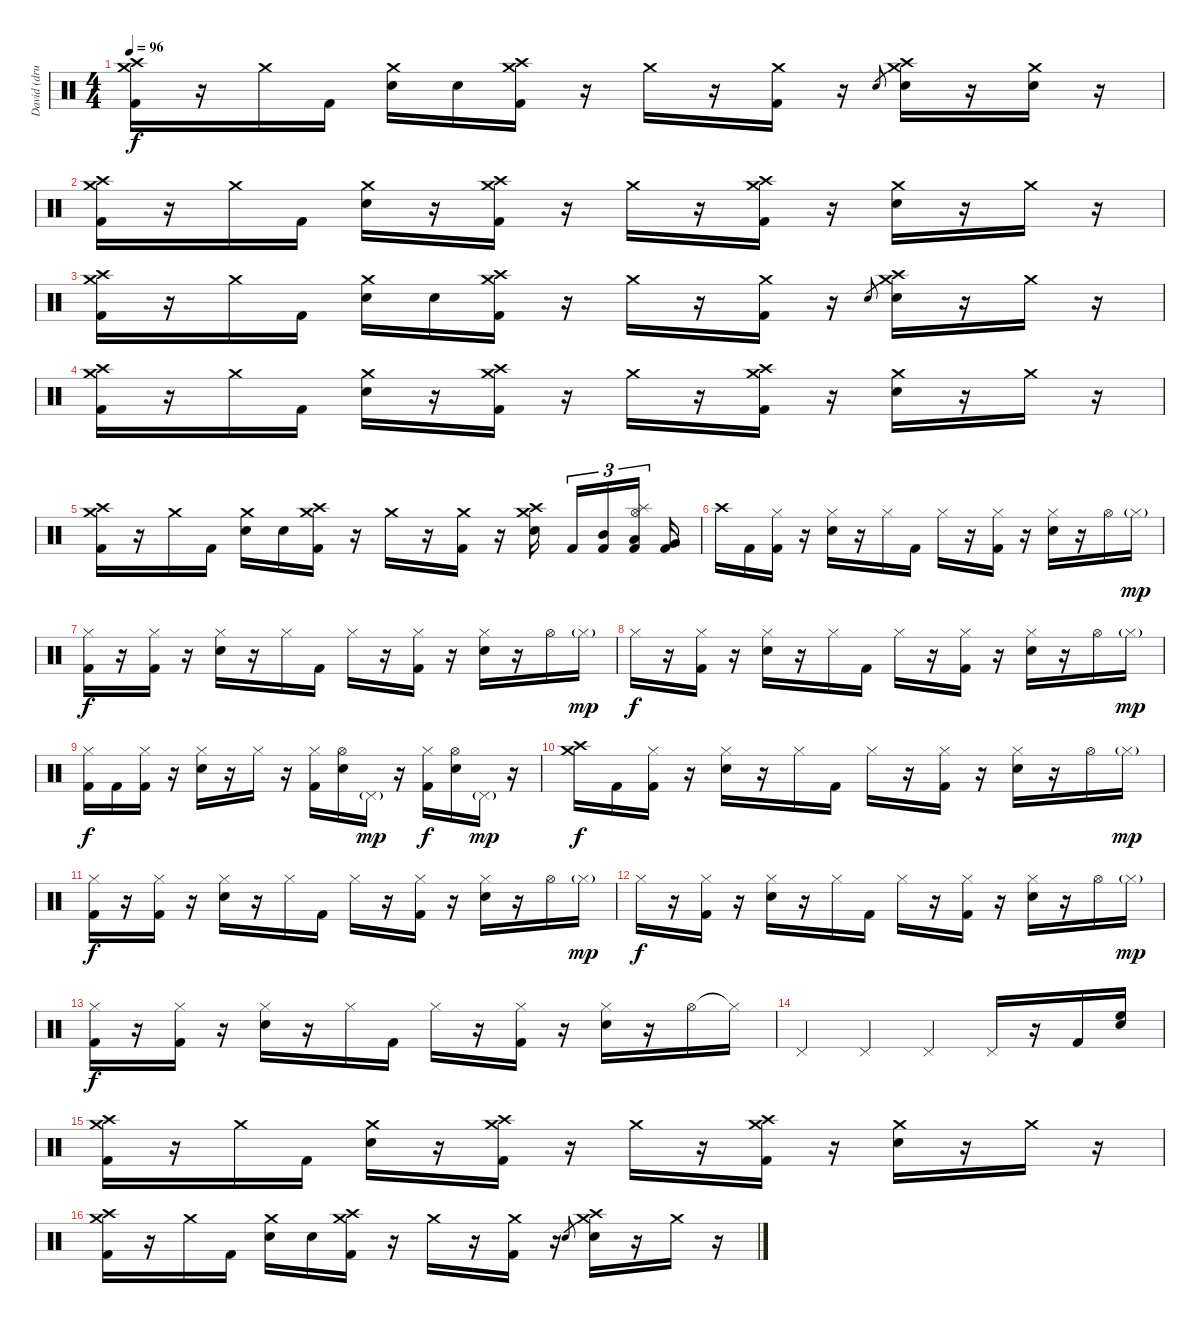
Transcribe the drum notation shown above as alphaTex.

\track ("David (drums)" "David (dru") {instrument percussion}
\staff {score}
\articulation defaults
\ts (4 4)
\tempo 96
\clef neutral
\ks c
("Crash high (hit)" "Crash medium (hit)" "Kick (hit) 2").16{dy f} r.16 "Crash medium (hit)".16 "Kick (hit) 2".16 ("Crash medium (hit)" "Electric Snare (hit)").16 "Electric Snare (hit)".16 ("Crash high (hit)" "Crash medium (hit)" "Kick (hit) 2").16 r.16 "Crash medium (hit)".16 r.16 ("Crash medium (hit)" "Kick (hit) 2").16 r.16 "Electric Snare (hit)".8{gr} ("Crash high (hit)" "Crash medium (hit)" "Electric Snare (hit)").16 r.16 ("Crash medium (hit)" "Electric Snare (hit)").16 r.16 |
("Crash high (hit)" "Crash medium (hit)" "Kick (hit) 2").16 r.16 "Crash medium (hit)".16 "Kick (hit) 2".16 ("Crash medium (hit)" "Electric Snare (hit)").16 r.16 ("Crash high (hit)" "Crash medium (hit)" "Kick (hit) 2").16 r.16 "Crash medium (hit)".16 r.16 ("Crash high (hit)" "Crash medium (hit)" "Kick (hit) 2").16 r.16 ("Crash medium (hit)" "Electric Snare (hit)").16 r.16 "Crash medium (hit)".16 r.16 |
("Crash high (hit)" "Crash medium (hit)" "Kick (hit) 2").16 r.16 "Crash medium (hit)".16 "Kick (hit) 2".16 ("Crash medium (hit)" "Electric Snare (hit)").16 "Electric Snare (hit)".16 ("Crash high (hit)" "Crash medium (hit)" "Kick (hit) 2").16 r.16 "Crash medium (hit)".16 r.16 ("Crash medium (hit)" "Kick (hit) 2").16 r.16 "Electric Snare (hit)".8{gr} ("Crash high (hit)" "Crash medium (hit)" "Electric Snare (hit)").16 r.16 "Crash medium (hit)".16 r.16 |
("Crash high (hit)" "Crash medium (hit)" "Kick (hit) 2").16 r.16 "Crash medium (hit)".16 "Kick (hit) 2".16 ("Crash medium (hit)" "Electric Snare (hit)").16 r.16 ("Crash high (hit)" "Crash medium (hit)" "Kick (hit) 2").16 r.16 "Crash medium (hit)".16 r.16 ("Crash high (hit)" "Crash medium (hit)" "Kick (hit) 2").16 r.16 ("Crash medium (hit)" "Electric Snare (hit)").16 r.16 "Crash medium (hit)".16 r.16 |
("Crash high (hit)" "Crash medium (hit)" "Kick (hit) 2").16 r.16 "Crash medium (hit)".16 "Kick (hit) 2".16 ("Crash medium (hit)" "Electric Snare (hit)").16 "Electric Snare (hit)".16 ("Crash high (hit)" "Crash medium (hit)" "Kick (hit) 2").16 r.16 "Crash medium (hit)".16 r.16 ("Crash medium (hit)" "Kick (hit) 2").16 r.16 ("Crash high (hit)" "Crash medium (hit)" "Electric Snare (hit)").16 "Kick (hit) 2".16{tu (3 2)} ("Mid Tom (hit)" "Kick (hit) 2").16{tu (3 2)} ("Splash (hit)" "Hi-Hat (open)" "Low Tom (hit)" "Kick (hit) 2").16{tu (3 2)} ("Very Low Tom (hit)" "Kick (hit) 2").16 |
"Crash high (hit)".16 "Kick (hit) 2".16 ("Hi-Hat (closed)" "Kick (hit) 2").16 r.16 ("Hi-Hat (closed)" "Electric Snare (hit)").16 r.16 "Hi-Hat (closed)".16 "Kick (hit) 2".16 "Hi-Hat (closed)".16 r.16 ("Hi-Hat (closed)" "Kick (hit) 2").16 r.16 ("Hi-Hat (closed)" "Electric Snare (hit)").16 r.16 "Hi-Hat (open)".16 "Hi-Hat (closed)"{g}.16{dy mp} |
("Hi-Hat (closed)" "Kick (hit) 2").16{dy f} r.16 ("Hi-Hat (closed)" "Kick (hit) 2").16 r.16 ("Hi-Hat (closed)" "Electric Snare (hit)").16 r.16 "Hi-Hat (closed)".16 "Kick (hit) 2".16 "Hi-Hat (closed)".16 r.16 ("Hi-Hat (closed)" "Kick (hit) 2").16 r.16 ("Hi-Hat (closed)" "Electric Snare (hit)").16 r.16 "Hi-Hat (open)".16 "Hi-Hat (closed)"{g}.16{dy mp} |
"Hi-Hat (closed)".16{dy f} r.16 ("Hi-Hat (closed)" "Kick (hit) 2").16 r.16 ("Hi-Hat (closed)" "Electric Snare (hit)").16 r.16 "Hi-Hat (closed)".16 "Kick (hit) 2".16 "Hi-Hat (closed)".16 r.16 ("Hi-Hat (closed)" "Kick (hit) 2").16 r.16 ("Hi-Hat (closed)" "Electric Snare (hit)").16 r.16 "Hi-Hat (open)".16 "Hi-Hat (closed)"{g}.16{dy mp} |
("Hi-Hat (closed)" "Kick (hit) 2").16{dy f} "Kick (hit) 2".16 ("Hi-Hat (closed)" "Kick (hit) 2").16 r.16 ("Hi-Hat (closed)" "Electric Snare (hit)").16 r.16 "Hi-Hat (closed)".16 r.16 ("Hi-Hat (closed)" "Kick (hit) 2").16 ("Hi-Hat (open)" "Electric Snare (hit)").16 "Pedal Hi-Hat (hit)"{g}.16{dy mp} r.16 ("Hi-Hat (closed)" "Kick (hit) 2").16{dy f} ("Hi-Hat (open)" "Electric Snare (hit)").16 "Pedal Hi-Hat (hit)"{g}.16{dy mp} r.16 |
("Crash high (hit)" "Crash medium (hit)").16{dy f} "Kick (hit) 2".16 ("Hi-Hat (closed)" "Kick (hit) 2").16 r.16 ("Hi-Hat (closed)" "Electric Snare (hit)").16 r.16 "Hi-Hat (closed)".16 "Kick (hit) 2".16 "Hi-Hat (closed)".16 r.16 ("Hi-Hat (closed)" "Kick (hit) 2").16 r.16 ("Hi-Hat (closed)" "Electric Snare (hit)").16 r.16 "Hi-Hat (open)".16 "Hi-Hat (closed)"{g}.16{dy mp} |
("Hi-Hat (closed)" "Kick (hit) 2").16{dy f} r.16 ("Hi-Hat (closed)" "Kick (hit) 2").16 r.16 ("Hi-Hat (closed)" "Electric Snare (hit)").16 r.16 "Hi-Hat (closed)".16 "Kick (hit) 2".16 "Hi-Hat (closed)".16 r.16 ("Hi-Hat (closed)" "Kick (hit) 2").16 r.16 ("Hi-Hat (closed)" "Electric Snare (hit)").16 r.16 "Hi-Hat (open)".16 "Hi-Hat (closed)"{g}.16{dy mp} |
"Hi-Hat (closed)".16{dy f} r.16 ("Hi-Hat (closed)" "Kick (hit) 2").16 r.16 ("Hi-Hat (closed)" "Electric Snare (hit)").16 r.16 "Hi-Hat (closed)".16 "Kick (hit) 2".16 "Hi-Hat (closed)".16 r.16 ("Hi-Hat (closed)" "Kick (hit) 2").16 r.16 ("Hi-Hat (closed)" "Electric Snare (hit)").16 r.16 "Hi-Hat (open)".16 "Hi-Hat (closed)"{g}.16{dy mp} |
("Hi-Hat (closed)" "Kick (hit) 2").16{dy f} r.16 ("Hi-Hat (closed)" "Kick (hit) 2").16 r.16 ("Hi-Hat (closed)" "Electric Snare (hit)").16 r.16 "Hi-Hat (closed)".16 "Kick (hit) 2".16 "Hi-Hat (closed)".16 r.16 ("Hi-Hat (closed)" "Kick (hit) 2").16 r.16 ("Hi-Hat (closed)" "Electric Snare (hit)").16 r.16 "Hi-Hat (open)".16 "Hi-Hat (closed)"{t}.16 |
"Pedal Hi-Hat (hit)".4 "Pedal Hi-Hat (hit)".4 "Pedal Hi-Hat (hit)".4 "Pedal Hi-Hat (hit)".16 r.16 "Kick (hit) 2".16 ("High Floor Tom (hit)" "Electric Snare (hit)").16 |
("Crash high (hit)" "Crash medium (hit)" "Kick (hit) 2").16 r.16 "Crash medium (hit)".16 "Kick (hit) 2".16 ("Crash medium (hit)" "Electric Snare (hit)").16 r.16 ("Crash high (hit)" "Crash medium (hit)" "Kick (hit) 2").16 r.16 "Crash medium (hit)".16 r.16 ("Crash high (hit)" "Crash medium (hit)" "Kick (hit) 2").16 r.16 ("Crash medium (hit)" "Electric Snare (hit)").16 r.16 "Crash medium (hit)".16 r.16 |
("Crash high (hit)" "Crash medium (hit)" "Kick (hit) 2").16 r.16 "Crash medium (hit)".16 "Kick (hit) 2".16 ("Crash medium (hit)" "Electric Snare (hit)").16 "Electric Snare (hit)".16 ("Crash high (hit)" "Crash medium (hit)" "Kick (hit) 2").16 r.16 "Crash medium (hit)".16 r.16 ("Crash medium (hit)" "Kick (hit) 2").16 r.16 "Electric Snare (hit)".8{gr} ("Crash high (hit)" "Crash medium (hit)" "Electric Snare (hit)").16 r.16 "Crash medium (hit)".16 r.16
